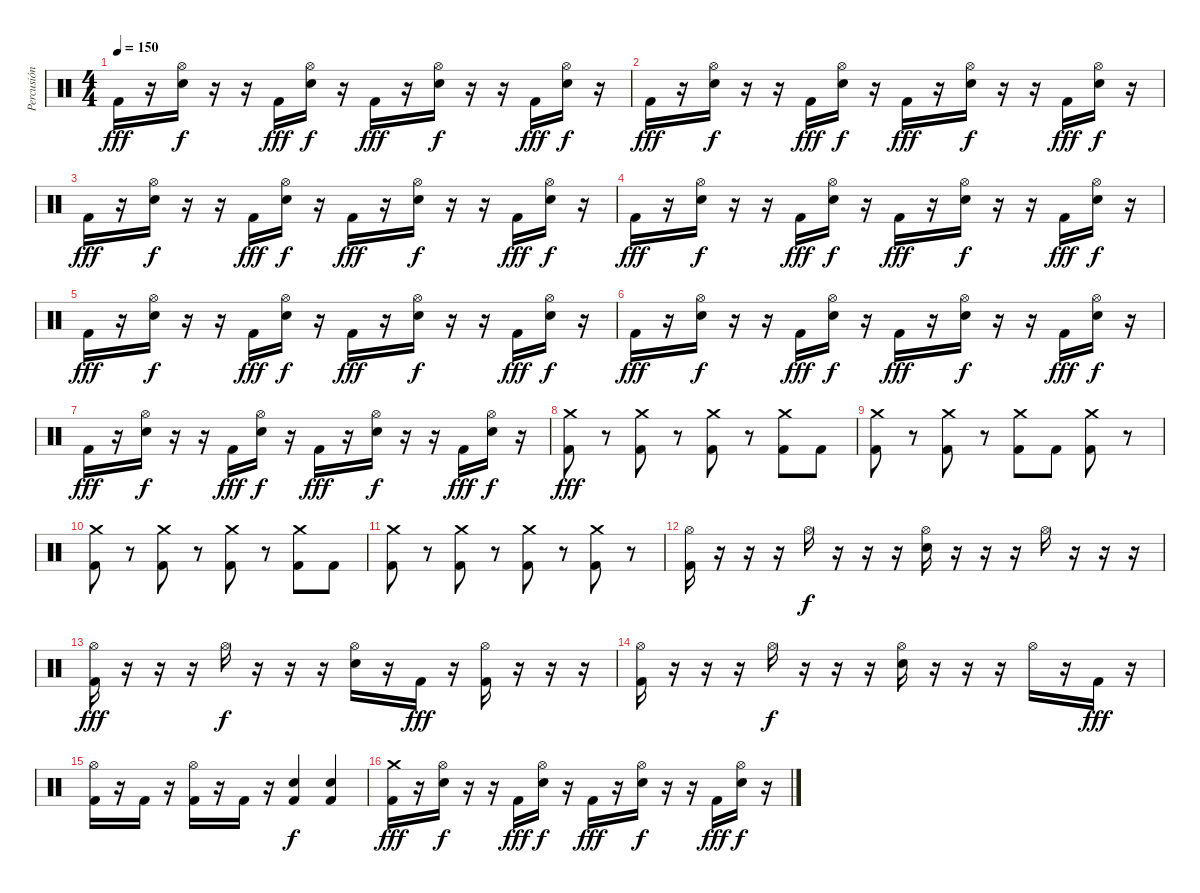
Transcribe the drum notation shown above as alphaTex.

\track ("Percusión" "Percusión") {instrument percussion}
\staff {score}
\articulation defaults
\ts (4 4)
\tempo 150
\clef neutral
\ks c "Kick (hit) 2".16{dy fff}
r.16 ("Electric Snare (hit)" "Hi-Hat (open)").16{dy f} r.16 r.16 "Kick (hit) 2".16{dy fff} ("Electric Snare (hit)" "Hi-Hat (open)").16{dy f} r.16 "Kick (hit) 2".16{dy fff} r.16 ("Electric Snare (hit)" "Hi-Hat (open)").16{dy f} r.16 r.16 "Kick (hit) 2".16{dy fff} ("Electric Snare (hit)" "Hi-Hat (open)").16{dy f} r.16 |
"Kick (hit) 2".16{dy fff} r.16 ("Electric Snare (hit)" "Hi-Hat (open)").16{dy f} r.16 r.16 "Kick (hit) 2".16{dy fff} ("Electric Snare (hit)" "Hi-Hat (open)").16{dy f} r.16 "Kick (hit) 2".16{dy fff} r.16 ("Electric Snare (hit)" "Hi-Hat (open)").16{dy f} r.16 r.16 "Kick (hit) 2".16{dy fff} ("Electric Snare (hit)" "Hi-Hat (open)").16{dy f} r.16 |
"Kick (hit) 2".16{dy fff} r.16 ("Electric Snare (hit)" "Hi-Hat (open)").16{dy f} r.16 r.16 "Kick (hit) 2".16{dy fff} ("Electric Snare (hit)" "Hi-Hat (open)").16{dy f} r.16 "Kick (hit) 2".16{dy fff} r.16 ("Electric Snare (hit)" "Hi-Hat (open)").16{dy f} r.16 r.16 "Kick (hit) 2".16{dy fff} ("Electric Snare (hit)" "Hi-Hat (open)").16{dy f} r.16 |
"Kick (hit) 2".16{dy fff} r.16 ("Electric Snare (hit)" "Hi-Hat (open)").16{dy f} r.16 r.16 "Kick (hit) 2".16{dy fff} ("Electric Snare (hit)" "Hi-Hat (open)").16{dy f} r.16 "Kick (hit) 2".16{dy fff} r.16 ("Electric Snare (hit)" "Hi-Hat (open)").16{dy f} r.16 r.16 "Kick (hit) 2".16{dy fff} ("Electric Snare (hit)" "Hi-Hat (open)").16{dy f} r.16 |
"Kick (hit) 2".16{dy fff} r.16 ("Electric Snare (hit)" "Hi-Hat (open)").16{dy f} r.16 r.16 "Kick (hit) 2".16{dy fff} ("Electric Snare (hit)" "Hi-Hat (open)").16{dy f} r.16 "Kick (hit) 2".16{dy fff} r.16 ("Electric Snare (hit)" "Hi-Hat (open)").16{dy f} r.16 r.16 "Kick (hit) 2".16{dy fff} ("Electric Snare (hit)" "Hi-Hat (open)").16{dy f} r.16 |
"Kick (hit) 2".16{dy fff} r.16 ("Electric Snare (hit)" "Hi-Hat (open)").16{dy f} r.16 r.16 "Kick (hit) 2".16{dy fff} ("Electric Snare (hit)" "Hi-Hat (open)").16{dy f} r.16 "Kick (hit) 2".16{dy fff} r.16 ("Electric Snare (hit)" "Hi-Hat (open)").16{dy f} r.16 r.16 "Kick (hit) 2".16{dy fff} ("Electric Snare (hit)" "Hi-Hat (open)").16{dy f} r.16 |
"Kick (hit) 2".16{dy fff} r.16 ("Electric Snare (hit)" "Hi-Hat (open)").16{dy f} r.16 r.16 "Kick (hit) 2".16{dy fff} ("Electric Snare (hit)" "Hi-Hat (open)").16{dy f} r.16 "Kick (hit) 2".16{dy fff} r.16 ("Electric Snare (hit)" "Hi-Hat (open)").16{dy f} r.16 r.16 "Kick (hit) 2".16{dy fff} ("Electric Snare (hit)" "Hi-Hat (open)").16{dy f} r.16 |
("Kick (hit) 2" "Crash medium (hit)").8{dy fff} r.8 ("Kick (hit) 2" "Crash medium (hit)").8 r.8 ("Kick (hit) 2" "Crash medium (hit)").8 r.8 ("Kick (hit) 2" "Crash medium (hit)").8 "Kick (hit) 2".8 |
("Kick (hit) 2" "Crash medium (hit)").8 r.8 ("Kick (hit) 2" "Crash medium (hit)").8 r.8 ("Kick (hit) 2" "Crash medium (hit)").8 "Kick (hit) 2".8 ("Kick (hit) 2" "Crash medium (hit)").8 r.8 |
("Kick (hit) 2" "Crash medium (hit)").8 r.8 ("Kick (hit) 2" "Crash medium (hit)").8 r.8 ("Kick (hit) 2" "Crash medium (hit)").8 r.8 ("Kick (hit) 2" "Crash medium (hit)").8 "Kick (hit) 2".8 |
("Kick (hit) 2" "Crash medium (hit)").8 r.8 ("Kick (hit) 2" "Crash medium (hit)").8 r.8 ("Kick (hit) 2" "Crash medium (hit)").8 r.8 ("Kick (hit) 2" "Crash medium (hit)").8 r.8 |
("Kick (hit) 2" "Hi-Hat (open)").16 r.16 r.16 r.16 "Hi-Hat (open)".16{dy f} r.16 r.16 r.16 ("Electric Snare (hit)" "Hi-Hat (open)").16 r.16 r.16 r.16 "Hi-Hat (open)".16 r.16 r.16 r.16 |
("Kick (hit) 2" "Hi-Hat (open)").16{dy fff} r.16 r.16 r.16 "Hi-Hat (open)".16{dy f} r.16 r.16 r.16 ("Electric Snare (hit)" "Hi-Hat (open)").16 r.16 "Kick (hit) 2".16{dy fff} r.16 ("Kick (hit) 2" "Hi-Hat (open)").16 r.16 r.16 r.16 |
("Kick (hit) 2" "Hi-Hat (open)").16 r.16 r.16 r.16 "Hi-Hat (open)".16{dy f} r.16 r.16 r.16 ("Electric Snare (hit)" "Hi-Hat (open)").16 r.16 r.16 r.16 "Hi-Hat (open)".16 r.16 "Kick (hit) 2".16{dy fff} r.16 |
("Kick (hit) 2" "Hi-Hat (open)").16 r.16 "Kick (hit) 2".16 r.16 ("Kick (hit) 2" "Hi-Hat (open)").16 r.16 "Kick (hit) 2".16 r.16 ("Electric Snare (hit)" "Kick (hit) 2").4{dy f} ("Electric Snare (hit)" "Kick (hit) 2").4 |
("Kick (hit) 2" "Crash medium (hit)").16{dy fff} r.16 ("Electric Snare (hit)" "Hi-Hat (open)").16{dy f} r.16 r.16 "Kick (hit) 2".16{dy fff} ("Electric Snare (hit)" "Hi-Hat (open)").16{dy f} r.16 "Kick (hit) 2".16{dy fff} r.16 ("Electric Snare (hit)" "Hi-Hat (open)").16{dy f} r.16 r.16 "Kick (hit) 2".16{dy fff} ("Electric Snare (hit)" "Hi-Hat (open)").16{dy f} r.16
